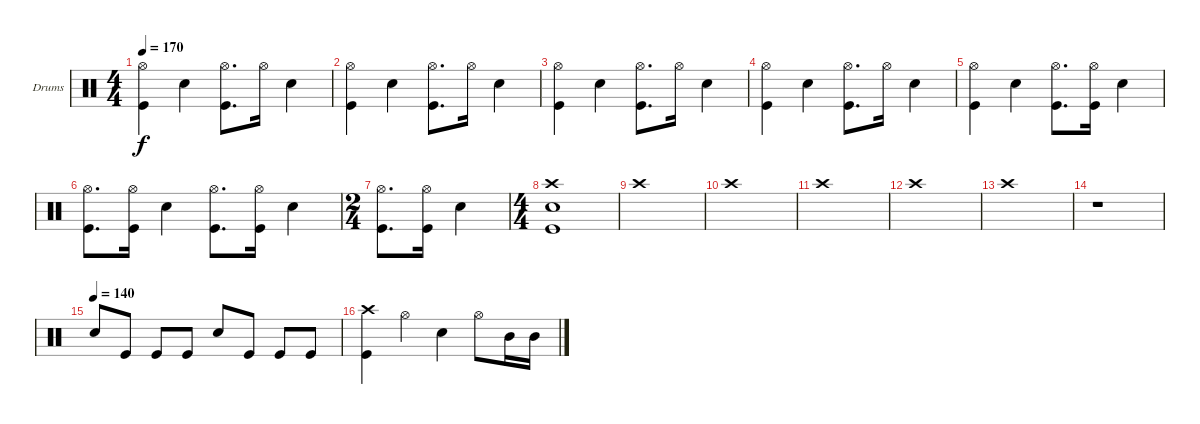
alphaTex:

\bracketExtendMode groupsimilarinstruments
\firstSystemTrackNameOrientation horizontal
\otherSystemsTrackNameOrientation horizontal
\track ("Batterie - Anders Johansson" "Drums") {instrument percussion}
\staff {score}
\articulation defaults
\ts (4 4)
\tempo 170
\clef neutral
\ks c
("Hi-Hat (open)" "Kick (hit)").4{dy f} "Snare (hit) 2".4 ("Hi-Hat (open)" "Kick (hit)").8{d} "Hi-Hat (open)".16 "Snare (hit) 2".4 |
("Hi-Hat (open)" "Kick (hit)").4 "Snare (hit) 2".4 ("Hi-Hat (open)" "Kick (hit)").8{d} "Hi-Hat (open)".16 "Snare (hit) 2".4 |
("Hi-Hat (open)" "Kick (hit)").4 "Snare (hit) 2".4 ("Hi-Hat (open)" "Kick (hit)").8{d} "Hi-Hat (open)".16 "Snare (hit) 2".4 |
("Hi-Hat (open)" "Kick (hit)").4 "Snare (hit) 2".4 ("Hi-Hat (open)" "Kick (hit)").8{d} "Hi-Hat (open)".16 "Snare (hit) 2".4 |
("Hi-Hat (open)" "Kick (hit)").4 "Snare (hit) 2".4 ("Hi-Hat (open)" "Kick (hit)").8{d} ("Hi-Hat (open)" "Kick (hit)").16 "Snare (hit) 2".4 |
("Hi-Hat (open)" "Kick (hit)").8{d} ("Hi-Hat (open)" "Kick (hit)").16 "Snare (hit) 2".4 ("Hi-Hat (open)" "Kick (hit)").8{d} ("Hi-Hat (open)" "Kick (hit)").16 "Snare (hit) 2".4 |
\ts (2 4)
\beaming (8 2 2)
("Hi-Hat (open)" "Kick (hit)").8{d} ("Hi-Hat (open)" "Kick (hit)").16 "Snare (hit) 2".4 |
\ts (4 4)
\beaming (8 2 2 2 2)
("Crash high (hit)" "Snare (hit) 2" "Kick (hit)").1 |
"Crash high (hit)".1 |
"Crash high (hit)".1 |
"Crash high (hit)".1 |
"Crash high (hit)".1 |
"Crash high (hit)".1 |
r.1 |
\tempo (140)
"Snare (hit) 2".8 "Kick (hit)".8 "Kick (hit)".8 "Kick (hit)".8 "Snare (hit) 2".8 "Kick (hit)".8 "Kick (hit)".8 "Kick (hit)".8 |
("Crash high (hit)" "Kick (hit)").4 "Hi-Hat (open)".4 "Snare (hit) 2".4 "Hi-Hat (open)".8 "Mid Tom (hit)".16 "Mid Tom (hit)".16
